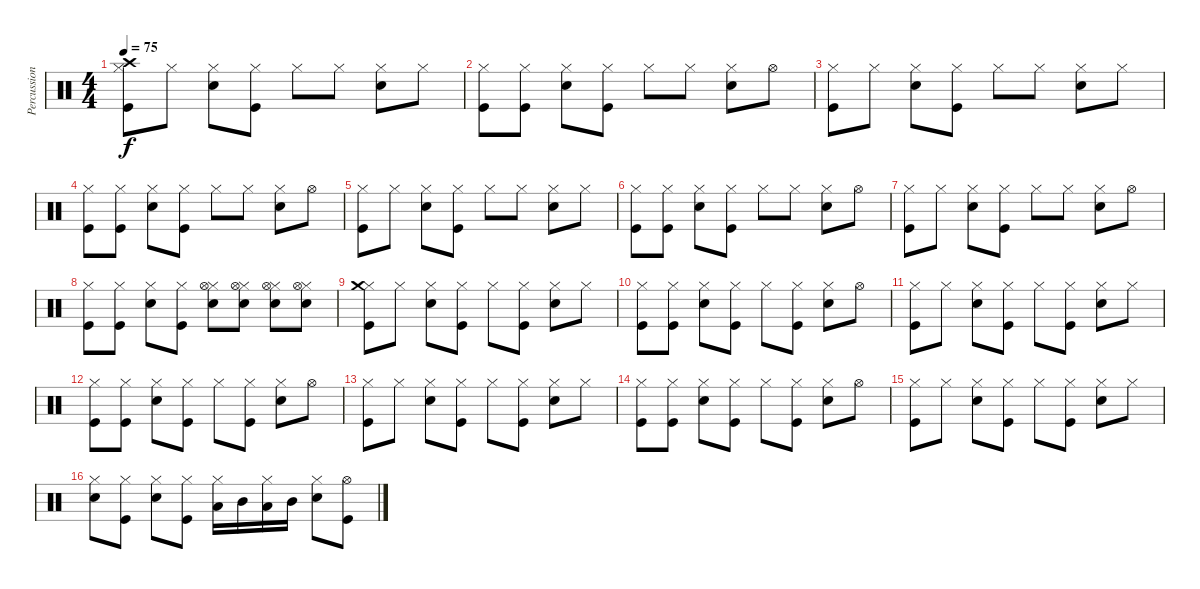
\track ("Percussion" "Percussion") {instrument percussion}
\staff {score}
\articulation defaults
\ts (4 4)
\tempo 75
\clef neutral
\ks c
("Hi-Hat (closed)" "Kick (hit)" "Crash high (hit)").8{dy f} "Hi-Hat (closed)".8 ("Hi-Hat (closed)" "Electric Snare (hit)").8 ("Hi-Hat (closed)" "Kick (hit)").8 "Hi-Hat (closed)".8 "Hi-Hat (closed)".8 ("Hi-Hat (closed)" "Electric Snare (hit)").8 "Hi-Hat (closed)".8 |
("Hi-Hat (closed)" "Kick (hit)").8 ("Hi-Hat (closed)" "Kick (hit)").8 ("Hi-Hat (closed)" "Electric Snare (hit)").8 ("Hi-Hat (closed)" "Kick (hit)").8 "Hi-Hat (closed)".8 "Hi-Hat (closed)".8 ("Hi-Hat (closed)" "Electric Snare (hit)").8 "Hi-Hat (open)".8 |
("Hi-Hat (closed)" "Kick (hit)").8 "Hi-Hat (closed)".8 ("Hi-Hat (closed)" "Electric Snare (hit)").8 ("Hi-Hat (closed)" "Kick (hit)").8 "Hi-Hat (closed)".8 "Hi-Hat (closed)".8 ("Hi-Hat (closed)" "Electric Snare (hit)").8 "Hi-Hat (closed)".8 |
("Hi-Hat (closed)" "Kick (hit)").8 ("Hi-Hat (closed)" "Kick (hit)").8 ("Hi-Hat (closed)" "Electric Snare (hit)").8 ("Hi-Hat (closed)" "Kick (hit)").8 "Hi-Hat (closed)".8 "Hi-Hat (closed)".8 ("Hi-Hat (closed)" "Electric Snare (hit)").8 "Hi-Hat (open)".8 |
("Hi-Hat (closed)" "Kick (hit)").8 "Hi-Hat (closed)".8 ("Hi-Hat (closed)" "Electric Snare (hit)").8 ("Hi-Hat (closed)" "Kick (hit)").8 "Hi-Hat (closed)".8 "Hi-Hat (closed)".8 ("Hi-Hat (closed)" "Electric Snare (hit)").8 "Hi-Hat (closed)".8 |
("Hi-Hat (closed)" "Kick (hit)").8 ("Hi-Hat (closed)" "Kick (hit)").8 ("Hi-Hat (closed)" "Electric Snare (hit)").8 ("Hi-Hat (closed)" "Kick (hit)").8 "Hi-Hat (closed)".8 "Hi-Hat (closed)".8 ("Hi-Hat (closed)" "Electric Snare (hit)").8 "Hi-Hat (open)".8 |
("Hi-Hat (closed)" "Kick (hit)").8 "Hi-Hat (closed)".8 ("Hi-Hat (closed)" "Electric Snare (hit)").8 ("Hi-Hat (closed)" "Kick (hit)").8 "Hi-Hat (closed)".8 "Hi-Hat (closed)".8 ("Hi-Hat (closed)" "Electric Snare (hit)").8 "Hi-Hat (open)".8 |
("Hi-Hat (closed)" "Kick (hit)").8 ("Hi-Hat (closed)" "Kick (hit)").8 ("Hi-Hat (closed)" "Electric Snare (hit)").8 ("Hi-Hat (closed)" "Kick (hit)").8 ("Hi-Hat (closed)" "Electric Snare (hit)" "Hi-Hat (open)").8 ("Hi-Hat (closed)" "Electric Snare (hit)" "Hi-Hat (open)").8 ("Hi-Hat (closed)" "Electric Snare (hit)" "Hi-Hat (open)").8 ("Hi-Hat (closed)" "Electric Snare (hit)" "Hi-Hat (open)").8 |
("Hi-Hat (closed)" "Kick (hit)" "Crash medium (hit)").8 "Hi-Hat (closed)".8 ("Hi-Hat (closed)" "Electric Snare (hit)").8 ("Hi-Hat (closed)" "Kick (hit)").8 "Hi-Hat (closed)".8 ("Hi-Hat (closed)" "Kick (hit)").8 ("Hi-Hat (closed)" "Electric Snare (hit)").8 "Hi-Hat (closed)".8 |
("Hi-Hat (closed)" "Kick (hit)").8 ("Hi-Hat (closed)" "Kick (hit)").8 ("Hi-Hat (closed)" "Electric Snare (hit)").8 ("Hi-Hat (closed)" "Kick (hit)").8 "Hi-Hat (closed)".8 ("Hi-Hat (closed)" "Kick (hit)").8 ("Hi-Hat (closed)" "Electric Snare (hit)").8 "Hi-Hat (open)".8 |
("Hi-Hat (closed)" "Kick (hit)").8 "Hi-Hat (closed)".8 ("Hi-Hat (closed)" "Electric Snare (hit)").8 ("Hi-Hat (closed)" "Kick (hit)").8 "Hi-Hat (closed)".8 ("Hi-Hat (closed)" "Kick (hit)").8 ("Hi-Hat (closed)" "Electric Snare (hit)").8 "Hi-Hat (closed)".8 |
("Hi-Hat (closed)" "Kick (hit)").8 ("Hi-Hat (closed)" "Kick (hit)").8 ("Hi-Hat (closed)" "Electric Snare (hit)").8 ("Hi-Hat (closed)" "Kick (hit)").8 "Hi-Hat (closed)".8 ("Hi-Hat (closed)" "Kick (hit)").8 ("Hi-Hat (closed)" "Electric Snare (hit)").8 "Hi-Hat (open)".8 |
("Hi-Hat (closed)" "Kick (hit)").8 "Hi-Hat (closed)".8 ("Hi-Hat (closed)" "Electric Snare (hit)").8 ("Hi-Hat (closed)" "Kick (hit)").8 "Hi-Hat (closed)".8 ("Hi-Hat (closed)" "Kick (hit)").8 ("Hi-Hat (closed)" "Electric Snare (hit)").8 "Hi-Hat (closed)".8 |
("Hi-Hat (closed)" "Kick (hit)").8 ("Hi-Hat (closed)" "Kick (hit)").8 ("Hi-Hat (closed)" "Electric Snare (hit)").8 ("Hi-Hat (closed)" "Kick (hit)").8 "Hi-Hat (closed)".8 ("Hi-Hat (closed)" "Kick (hit)").8 ("Hi-Hat (closed)" "Electric Snare (hit)").8 "Hi-Hat (open)".8 |
("Hi-Hat (closed)" "Kick (hit)").8 "Hi-Hat (closed)".8 ("Hi-Hat (closed)" "Electric Snare (hit)").8 ("Hi-Hat (closed)" "Kick (hit)").8 "Hi-Hat (closed)".8 ("Hi-Hat (closed)" "Kick (hit)").8 ("Hi-Hat (closed)" "Electric Snare (hit)").8 "Hi-Hat (closed)".8 |
("Hi-Hat (closed)" "Electric Snare (hit)").8 ("Hi-Hat (closed)" "Kick (hit)").8 ("Hi-Hat (closed)" "Electric Snare (hit)").8 ("Hi-Hat (closed)" "Kick (hit)").8 ("Hi-Hat (closed)" "Low Tom (hit)").16 "Mid Tom (hit)".16 ("Hi-Hat (closed)" "Low Tom (hit)").16 "Mid Tom (hit)".16 ("Hi-Hat (closed)" "Electric Snare (hit)").8 ("Hi-Hat (open)" "Kick (hit)").8
